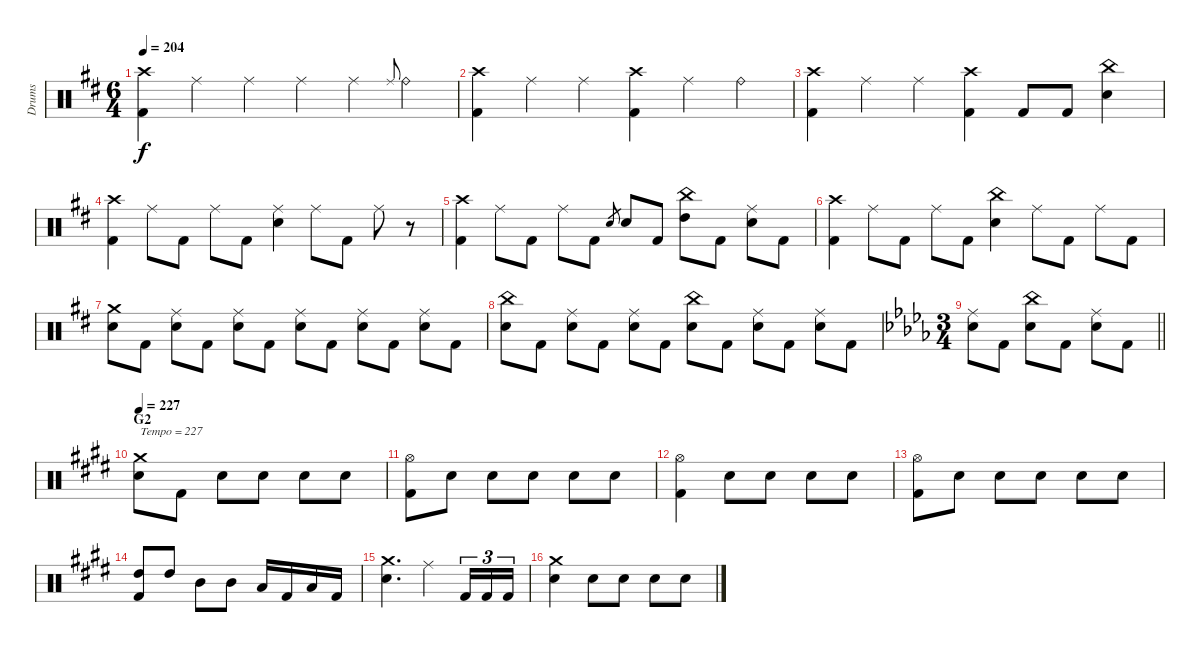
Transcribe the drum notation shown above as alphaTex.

\track ("Drums" "Drums") {instrument percussion}
\staff {score}
\articulation defaults
\ts (6 4)
\tempo 204
\clef neutral
\ks d
("Crash high (hit)" "Kick (hit) 2").4{dy f} "Ride (middle)".4 "Ride (middle)".4 "Ride (middle)".4 "Ride (middle)".4 "Ride (middle)".8{gr onbeat} "Ride (bell)".4 |
("Crash high (hit)" "Kick (hit) 2").4 "Ride (middle)".4 "Ride (middle)".4 ("Crash high (hit)" "Kick (hit) 2").4 "Ride (middle)".4 "Ride (bell)".4 |
("Crash high (hit)" "Kick (hit) 2").4 "Ride (middle)".4 "Ride (middle)".4 ("Crash high (hit)" "Kick (hit) 2").4 "Kick (hit) 2".8 "Kick (hit) 2".8 ("China (hit)" "Snare (hit) 2").4 |
("Crash high (hit)" "Kick (hit) 2").4 "Ride (middle)".8 "Kick (hit) 2".8 "Ride (middle)".8 "Kick (hit) 2".8 ("Ride (middle)" "Snare (hit) 2").4 "Ride (middle)".8 "Kick (hit) 2".8 "Ride (middle)".8 r.8 |
("Crash high (hit)" "Kick (hit) 2").4 "Ride (middle)".8 "Kick (hit) 2".8 "Ride (middle)".8 "Kick (hit) 2".8 "Snare (hit) 2".8{gr} "Snare (hit) 2".8 "Kick (hit) 2".8 ("China (hit)" "High Tom (hit)").8 "Kick (hit) 2".8 ("Ride (middle)" "Snare (hit) 2").8 "Kick (hit) 2".8 |
("Crash high (hit)" "Kick (hit) 2").4 "Ride (middle)".8 "Kick (hit) 2".8 "Ride (middle)".8 "Kick (hit) 2".8 ("China (hit)" "Snare (hit) 2").4 "Ride (middle)".8 "Kick (hit) 2".8 "Ride (middle)".8 "Kick (hit) 2".8 |
("Crash medium (hit)" "Snare (hit) 2").8 "Kick (hit) 2".8 ("Ride (middle)" "Snare (hit) 2").8 "Kick (hit) 2".8 ("Ride (middle)" "Snare (hit) 2").8 "Kick (hit) 2".8 ("Ride (middle)" "Snare (hit) 2").8 "Kick (hit) 2".8 ("Ride (middle)" "Snare (hit) 2").8 "Kick (hit) 2".8 ("Ride (middle)" "Snare (hit) 2").8 "Kick (hit) 2".8 |
("China (hit)" "Snare (hit) 2").8 "Kick (hit) 2".8 ("Ride (middle)" "Snare (hit) 2").8 "Kick (hit) 2".8 ("Ride (middle)" "Snare (hit) 2").8 "Kick (hit) 2".8 ("China (hit)" "Snare (hit) 2").8 "Kick (hit) 2".8 ("Ride (middle)" "Snare (hit) 2").8 "Kick (hit) 2".8 ("Ride (middle)" "Snare (hit) 2").8 "Kick (hit) 2".8 |
\ts (3 4)
\barLineRight lightlight
\ks db
("Ride (middle)" "Snare (hit) 2").8 "Kick (hit) 2".8 ("China (hit)" "Snare (hit) 2").8 "Kick (hit) 2".8 ("Ride (middle)" "Snare (hit) 2").8 "Kick (hit) 2".8 |
\section ("" "G2")
\tempo 227
\ks c#minor
("Crash medium (hit)" "Snare (hit) 2").8{txt "Tempo = 227"} "Kick (hit) 2".8 "Snare (hit) 2".8 "Snare (hit) 2".8 "Snare (hit) 2".8 "Snare (hit) 2".8 |
("Hi-Hat (open)" "Kick (hit) 2").8 "Snare (hit) 2".8 "Snare (hit) 2".8 "Snare (hit) 2".8 "Snare (hit) 2".8 "Snare (hit) 2".8 |
("Hi-Hat (open)" "Kick (hit) 2").4 "Snare (hit) 2".8 "Snare (hit) 2".8 "Snare (hit) 2".8 "Snare (hit) 2".8 |
("Hi-Hat (open)" "Kick (hit) 2").8 "Snare (hit) 2".8 "Snare (hit) 2".8 "Snare (hit) 2".8 "Snare (hit) 2".8 "Snare (hit) 2".8 |
("High Tom (hit)" "Kick (hit) 2").8 "High Tom (hit)".8 "Mid Tom (hit)".8 "Mid Tom (hit)".8 "Low Tom (hit)".16 "Kick (hit) 2".16 "Low Tom (hit)".16 "Kick (hit) 2".16 |
("Crash medium (hit)" "Snare (hit) 2").4{d} "Ride (middle)".4 "Kick (hit) 2".16{tu (3 2)} "Kick (hit) 2".16{tu (3 2)} "Kick (hit) 2".16{tu (3 2)} |
("Crash medium (hit)" "Snare (hit) 2").4 "Snare (hit) 2".8 "Snare (hit) 2".8 "Snare (hit) 2".8 "Snare (hit) 2".8
